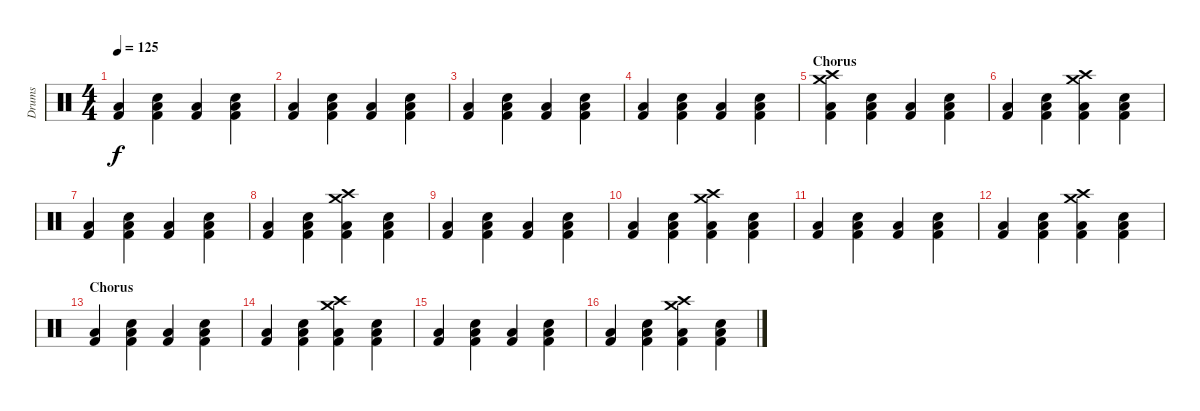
\track ("Drums" "Drums") {instrument percussion}
\staff {score}
\articulation defaults
\ts (4 4)
\tempo 125
\clef neutral
\ks c
("Low Floor Tom (hit)" "Kick (hit) 2").4{dy f} ("Snare (hit) 2" "Low Floor Tom (hit)" "Kick (hit) 2").4 ("Low Floor Tom (hit)" "Kick (hit) 2").4 ("Snare (hit) 2" "Low Floor Tom (hit)" "Kick (hit) 2").4 |
("Low Floor Tom (hit)" "Kick (hit) 2").4 ("Snare (hit) 2" "Low Floor Tom (hit)" "Kick (hit) 2").4 ("Low Floor Tom (hit)" "Kick (hit) 2").4 ("Snare (hit) 2" "Low Floor Tom (hit)" "Kick (hit) 2").4 |
("Low Floor Tom (hit)" "Kick (hit) 2").4 ("Snare (hit) 2" "Low Floor Tom (hit)" "Kick (hit) 2").4 ("Low Floor Tom (hit)" "Kick (hit) 2").4 ("Snare (hit) 2" "Low Floor Tom (hit)" "Kick (hit) 2").4 |
("Low Floor Tom (hit)" "Kick (hit) 2").4 ("Snare (hit) 2" "Low Floor Tom (hit)" "Kick (hit) 2").4 ("Low Floor Tom (hit)" "Kick (hit) 2").4 ("Snare (hit) 2" "Low Floor Tom (hit)" "Kick (hit) 2").4 |
\section ("" "Chorus")
("Crash high (hit)" "Crash medium (hit)" "Low Floor Tom (hit)" "Kick (hit) 2").4 ("Snare (hit) 2" "Low Floor Tom (hit)" "Kick (hit) 2").4 ("Low Floor Tom (hit)" "Kick (hit) 2").4 ("Snare (hit) 2" "Low Floor Tom (hit)" "Kick (hit) 2").4 |
("Low Floor Tom (hit)" "Kick (hit) 2").4 ("Snare (hit) 2" "Low Floor Tom (hit)" "Kick (hit) 2").4 ("Crash high (hit)" "Crash medium (hit)" "Low Floor Tom (hit)" "Kick (hit) 2").4 ("Snare (hit) 2" "Low Floor Tom (hit)" "Kick (hit) 2").4 |
("Low Floor Tom (hit)" "Kick (hit) 2").4 ("Snare (hit) 2" "Low Floor Tom (hit)" "Kick (hit) 2").4 ("Low Floor Tom (hit)" "Kick (hit) 2").4 ("Snare (hit) 2" "Low Floor Tom (hit)" "Kick (hit) 2").4 |
("Low Floor Tom (hit)" "Kick (hit) 2").4 ("Snare (hit) 2" "Low Floor Tom (hit)" "Kick (hit) 2").4 ("Crash high (hit)" "Crash medium (hit)" "Low Floor Tom (hit)" "Kick (hit) 2").4 ("Snare (hit) 2" "Low Floor Tom (hit)" "Kick (hit) 2").4 |
("Low Floor Tom (hit)" "Kick (hit) 2").4 ("Snare (hit) 2" "Low Floor Tom (hit)" "Kick (hit) 2").4 ("Low Floor Tom (hit)" "Kick (hit) 2").4 ("Snare (hit) 2" "Low Floor Tom (hit)" "Kick (hit) 2").4 |
("Low Floor Tom (hit)" "Kick (hit) 2").4 ("Snare (hit) 2" "Low Floor Tom (hit)" "Kick (hit) 2").4 ("Crash high (hit)" "Crash medium (hit)" "Low Floor Tom (hit)" "Kick (hit) 2").4 ("Snare (hit) 2" "Low Floor Tom (hit)" "Kick (hit) 2").4 |
("Low Floor Tom (hit)" "Kick (hit) 2").4 ("Snare (hit) 2" "Low Floor Tom (hit)" "Kick (hit) 2").4 ("Low Floor Tom (hit)" "Kick (hit) 2").4 ("Snare (hit) 2" "Low Floor Tom (hit)" "Kick (hit) 2").4 |
("Low Floor Tom (hit)" "Kick (hit) 2").4 ("Snare (hit) 2" "Low Floor Tom (hit)" "Kick (hit) 2").4 ("Crash high (hit)" "Crash medium (hit)" "Low Floor Tom (hit)" "Kick (hit) 2").4 ("Snare (hit) 2" "Low Floor Tom (hit)" "Kick (hit) 2").4 |
\section ("" "Chorus")
("Low Floor Tom (hit)" "Kick (hit) 2").4 ("Snare (hit) 2" "Low Floor Tom (hit)" "Kick (hit) 2").4 ("Low Floor Tom (hit)" "Kick (hit) 2").4 ("Snare (hit) 2" "Low Floor Tom (hit)" "Kick (hit) 2").4 |
("Low Floor Tom (hit)" "Kick (hit) 2").4 ("Snare (hit) 2" "Low Floor Tom (hit)" "Kick (hit) 2").4 ("Crash high (hit)" "Crash medium (hit)" "Low Floor Tom (hit)" "Kick (hit) 2").4 ("Snare (hit) 2" "Low Floor Tom (hit)" "Kick (hit) 2").4 |
("Low Floor Tom (hit)" "Kick (hit) 2").4 ("Snare (hit) 2" "Low Floor Tom (hit)" "Kick (hit) 2").4 ("Low Floor Tom (hit)" "Kick (hit) 2").4 ("Snare (hit) 2" "Low Floor Tom (hit)" "Kick (hit) 2").4 |
("Low Floor Tom (hit)" "Kick (hit) 2").4 ("Snare (hit) 2" "Low Floor Tom (hit)" "Kick (hit) 2").4 ("Crash high (hit)" "Crash medium (hit)" "Low Floor Tom (hit)" "Kick (hit) 2").4 ("Snare (hit) 2" "Low Floor Tom (hit)" "Kick (hit) 2").4
